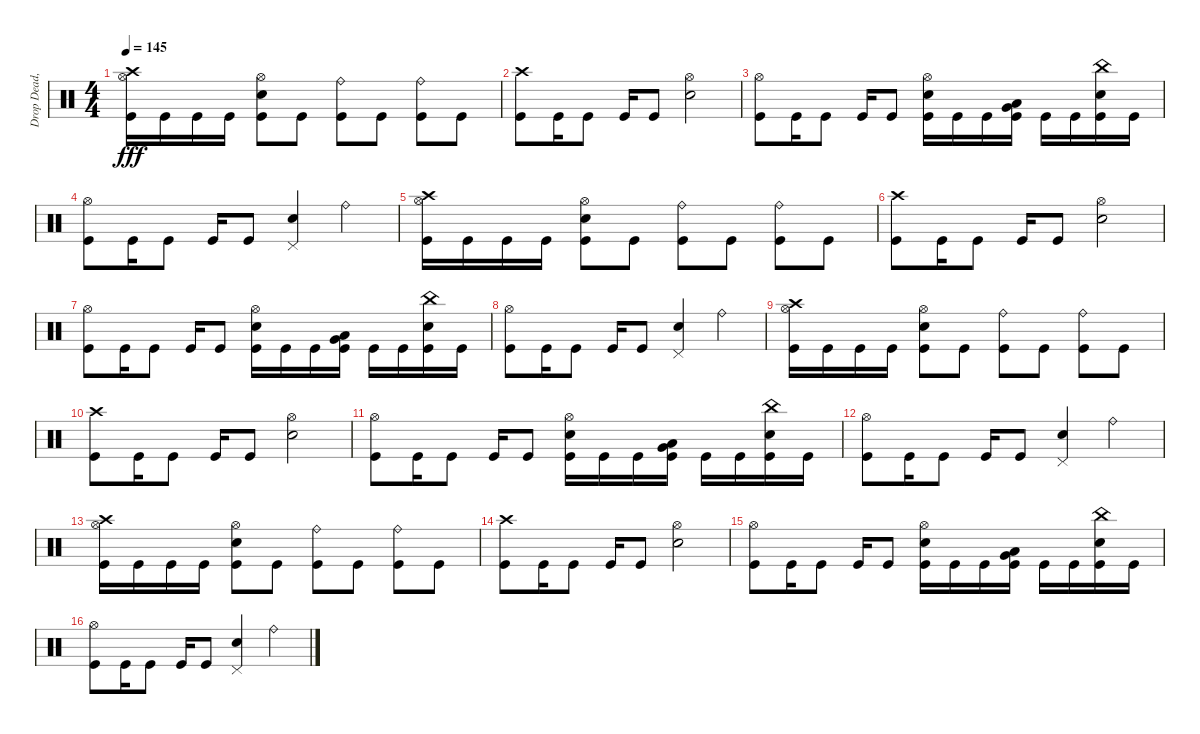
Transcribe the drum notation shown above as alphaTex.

\track ("Drop Dead, Johnny" "Drop Dead,") {instrument percussion}
\staff {score}
\articulation defaults
\ts (4 4)
\tempo 145
\clef neutral
\ks c
("Crash high (hit)" "Hi-Hat (open)" "Kick (hit)").16{dy fff} "Kick (hit)".16 "Kick (hit)".16 "Kick (hit)".16 ("Hi-Hat (open)" "Electric Snare (hit)" "Kick (hit)").8 "Kick (hit)".8 ("Ride (bell)" "Kick (hit)").8 "Kick (hit)".8 ("Ride (bell)" "Kick (hit)").8 "Kick (hit)".8 |
("Crash high (hit)" "Kick (hit)").8 "Kick (hit)".16 "Kick (hit)".8 "Kick (hit)".16 "Kick (hit)".8 ("Hi-Hat (open)" "Electric Snare (hit)").2 |
("Hi-Hat (open)" "Kick (hit)").8 "Kick (hit)".16 "Kick (hit)".8 "Kick (hit)".16 "Kick (hit)".8 ("Hi-Hat (open)" "Electric Snare (hit)" "Kick (hit)").16 "Kick (hit)".16 "Kick (hit)".16 ("Very Low Tom (hit)" "Low Floor Tom (hit)" "Kick (hit)").16 "Kick (hit)".16 "Kick (hit)".16 ("China (hit)" "Electric Snare (hit)" "Kick (hit)").16 "Kick (hit)".16 |
("Hi-Hat (open)" "Kick (hit)").8 "Kick (hit)".16 "Kick (hit)".8 "Kick (hit)".16 "Kick (hit)".8 ("Pedal Hi-Hat (hit)" "Electric Snare (hit)").4 "Ride (bell)".4 |
("Crash high (hit)" "Hi-Hat (open)" "Kick (hit)").16 "Kick (hit)".16 "Kick (hit)".16 "Kick (hit)".16 ("Hi-Hat (open)" "Electric Snare (hit)" "Kick (hit)").8 "Kick (hit)".8 ("Ride (bell)" "Kick (hit)").8 "Kick (hit)".8 ("Ride (bell)" "Kick (hit)").8 "Kick (hit)".8 |
("Crash high (hit)" "Kick (hit)").8 "Kick (hit)".16 "Kick (hit)".8 "Kick (hit)".16 "Kick (hit)".8 ("Hi-Hat (open)" "Electric Snare (hit)").2 |
("Hi-Hat (open)" "Kick (hit)").8 "Kick (hit)".16 "Kick (hit)".8 "Kick (hit)".16 "Kick (hit)".8 ("Hi-Hat (open)" "Electric Snare (hit)" "Kick (hit)").16 "Kick (hit)".16 "Kick (hit)".16 ("Very Low Tom (hit)" "Low Floor Tom (hit)" "Kick (hit)").16 "Kick (hit)".16 "Kick (hit)".16 ("China (hit)" "Electric Snare (hit)" "Kick (hit)").16 "Kick (hit)".16 |
("Hi-Hat (open)" "Kick (hit)").8 "Kick (hit)".16 "Kick (hit)".8 "Kick (hit)".16 "Kick (hit)".8 ("Pedal Hi-Hat (hit)" "Electric Snare (hit)").4 "Ride (bell)".4 |
("Crash high (hit)" "Hi-Hat (open)" "Kick (hit)").16 "Kick (hit)".16 "Kick (hit)".16 "Kick (hit)".16 ("Hi-Hat (open)" "Electric Snare (hit)" "Kick (hit)").8 "Kick (hit)".8 ("Ride (bell)" "Kick (hit)").8 "Kick (hit)".8 ("Ride (bell)" "Kick (hit)").8 "Kick (hit)".8 |
("Crash high (hit)" "Kick (hit)").8 "Kick (hit)".16 "Kick (hit)".8 "Kick (hit)".16 "Kick (hit)".8 ("Hi-Hat (open)" "Electric Snare (hit)").2 |
("Hi-Hat (open)" "Kick (hit)").8 "Kick (hit)".16 "Kick (hit)".8 "Kick (hit)".16 "Kick (hit)".8 ("Hi-Hat (open)" "Electric Snare (hit)" "Kick (hit)").16 "Kick (hit)".16 "Kick (hit)".16 ("Very Low Tom (hit)" "Low Floor Tom (hit)" "Kick (hit)").16 "Kick (hit)".16 "Kick (hit)".16 ("China (hit)" "Electric Snare (hit)" "Kick (hit)").16 "Kick (hit)".16 |
("Hi-Hat (open)" "Kick (hit)").8 "Kick (hit)".16 "Kick (hit)".8 "Kick (hit)".16 "Kick (hit)".8 ("Pedal Hi-Hat (hit)" "Electric Snare (hit)").4 "Ride (bell)".4 |
("Crash high (hit)" "Hi-Hat (open)" "Kick (hit)").16 "Kick (hit)".16 "Kick (hit)".16 "Kick (hit)".16 ("Hi-Hat (open)" "Electric Snare (hit)" "Kick (hit)").8 "Kick (hit)".8 ("Ride (bell)" "Kick (hit)").8 "Kick (hit)".8 ("Ride (bell)" "Kick (hit)").8 "Kick (hit)".8 |
("Crash high (hit)" "Kick (hit)").8 "Kick (hit)".16 "Kick (hit)".8 "Kick (hit)".16 "Kick (hit)".8 ("Hi-Hat (open)" "Electric Snare (hit)").2 |
("Hi-Hat (open)" "Kick (hit)").8 "Kick (hit)".16 "Kick (hit)".8 "Kick (hit)".16 "Kick (hit)".8 ("Hi-Hat (open)" "Electric Snare (hit)" "Kick (hit)").16 "Kick (hit)".16 "Kick (hit)".16 ("Very Low Tom (hit)" "Low Floor Tom (hit)" "Kick (hit)").16 "Kick (hit)".16 "Kick (hit)".16 ("China (hit)" "Electric Snare (hit)" "Kick (hit)").16 "Kick (hit)".16 |
("Hi-Hat (open)" "Kick (hit)").8 "Kick (hit)".16 "Kick (hit)".8 "Kick (hit)".16 "Kick (hit)".8 ("Pedal Hi-Hat (hit)" "Electric Snare (hit)").4 "Ride (bell)".4
